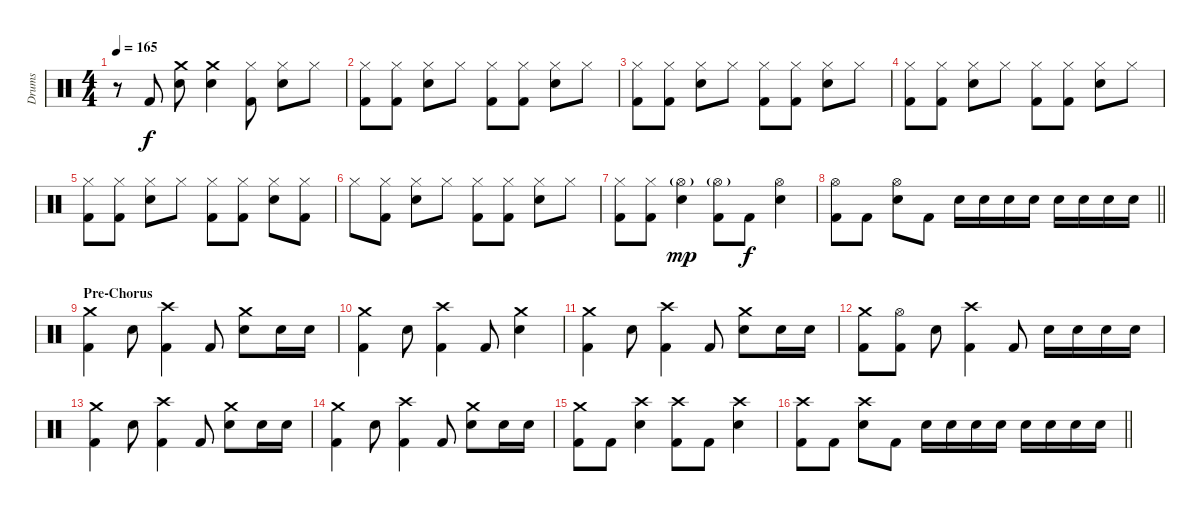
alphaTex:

\track ("Drums" "Drums") {instrument percussion}
\staff {score}
\articulation defaults
\ts (4 4)
\tempo 165
\clef neutral
\ks c
r.8{dy f} "Kick (hit) 2".8 ("Crash medium (hit)" "Electric Snare (hit)").8 ("Crash medium (hit)" "Electric Snare (hit)").4 ("Hi-Hat (closed)" "Kick (hit) 2").8 ("Hi-Hat (closed)" "Electric Snare (hit)").8 "Hi-Hat (closed)".8 |
("Hi-Hat (closed)" "Kick (hit) 2").8 ("Hi-Hat (closed)" "Kick (hit) 2").8 ("Hi-Hat (closed)" "Electric Snare (hit)").8 "Hi-Hat (closed)".8 ("Hi-Hat (closed)" "Kick (hit) 2").8 ("Hi-Hat (closed)" "Kick (hit) 2").8 ("Hi-Hat (closed)" "Electric Snare (hit)").8 "Hi-Hat (closed)".8 |
("Hi-Hat (closed)" "Kick (hit) 2").8 ("Hi-Hat (closed)" "Kick (hit) 2").8 ("Hi-Hat (closed)" "Electric Snare (hit)").8 "Hi-Hat (closed)".8 ("Hi-Hat (closed)" "Kick (hit) 2").8 ("Hi-Hat (closed)" "Kick (hit) 2").8 ("Hi-Hat (closed)" "Electric Snare (hit)").8 "Hi-Hat (closed)".8 |
("Hi-Hat (closed)" "Kick (hit) 2").8 ("Hi-Hat (closed)" "Kick (hit) 2").8 ("Hi-Hat (closed)" "Electric Snare (hit)").8 "Hi-Hat (closed)".8 ("Hi-Hat (closed)" "Kick (hit) 2").8 ("Hi-Hat (closed)" "Kick (hit) 2").8 ("Hi-Hat (closed)" "Electric Snare (hit)").8 "Hi-Hat (closed)".8 |
("Hi-Hat (closed)" "Kick (hit) 2").8 ("Hi-Hat (closed)" "Kick (hit) 2").8 ("Hi-Hat (closed)" "Electric Snare (hit)").8 "Hi-Hat (closed)".8 ("Hi-Hat (closed)" "Kick (hit) 2").8 ("Hi-Hat (closed)" "Kick (hit) 2").8 ("Hi-Hat (closed)" "Electric Snare (hit)").8 ("Hi-Hat (closed)" "Kick (hit) 2").8 |
"Hi-Hat (closed)".8 ("Hi-Hat (closed)" "Kick (hit) 2").8 ("Hi-Hat (closed)" "Electric Snare (hit)").8 "Hi-Hat (closed)".8 ("Hi-Hat (closed)" "Kick (hit) 2").8 ("Hi-Hat (closed)" "Kick (hit) 2").8 ("Hi-Hat (closed)" "Electric Snare (hit)").8 "Hi-Hat (closed)".8 |
("Hi-Hat (closed)" "Kick (hit) 2").8 ("Hi-Hat (closed)" "Kick (hit) 2").8 ("Hi-Hat (open)"{g} "Electric Snare (hit)").4{dy mp} ("Hi-Hat (open)"{g} "Kick (hit) 2").8 "Kick (hit) 2".8{dy f} ("Hi-Hat (open)" "Electric Snare (hit)").4 |
\barLineRight lightlight
("Hi-Hat (open)" "Kick (hit) 2").8 "Kick (hit) 2".8 ("Hi-Hat (open)" "Electric Snare (hit)").8 "Kick (hit) 2".8 "Electric Snare (hit)".16 "Electric Snare (hit)".16 "Electric Snare (hit)".16 "Electric Snare (hit)".16 "Electric Snare (hit)".16 "Electric Snare (hit)".16 "Electric Snare (hit)".16 "Electric Snare (hit)".16 |
\section ("" "Pre-Chorus")
("Crash medium (hit)" "Kick (hit) 2").4 "Electric Snare (hit)".8 ("Crash high (hit)" "Kick (hit) 2").4 "Kick (hit) 2".8 ("Crash medium (hit)" "Electric Snare (hit)").8 "Electric Snare (hit)".16 "Electric Snare (hit)".16 |
("Crash medium (hit)" "Kick (hit) 2").4 "Electric Snare (hit)".8 ("Crash high (hit)" "Kick (hit) 2").4 "Kick (hit) 2".8 ("Crash medium (hit)" "Electric Snare (hit)").4 |
("Crash medium (hit)" "Kick (hit) 2").4 "Electric Snare (hit)".8 ("Crash high (hit)" "Kick (hit) 2").4 "Kick (hit) 2".8 ("Crash medium (hit)" "Electric Snare (hit)").8 "Electric Snare (hit)".16 "Electric Snare (hit)".16 |
("Crash medium (hit)" "Kick (hit) 2").8 ("Hi-Hat (open)" "Kick (hit) 2").8 "Electric Snare (hit)".8 ("Crash high (hit)" "Kick (hit) 2").4 "Kick (hit) 2".8 "Electric Snare (hit)".16 "Electric Snare (hit)".16 "Electric Snare (hit)".16 "Electric Snare (hit)".16 |
("Crash medium (hit)" "Kick (hit) 2").4 "Electric Snare (hit)".8 ("Crash high (hit)" "Kick (hit) 2").4 "Kick (hit) 2".8 ("Crash medium (hit)" "Electric Snare (hit)").8 "Electric Snare (hit)".16 "Electric Snare (hit)".16 |
("Crash medium (hit)" "Kick (hit) 2").4 "Electric Snare (hit)".8 ("Crash high (hit)" "Kick (hit) 2").4 "Kick (hit) 2".8 ("Crash medium (hit)" "Electric Snare (hit)").8 "Electric Snare (hit)".16 "Electric Snare (hit)".16 |
("Crash medium (hit)" "Kick (hit) 2").8 "Kick (hit) 2".8 ("Crash high (hit)" "Electric Snare (hit)").4 ("Crash high (hit)" "Kick (hit) 2").8 "Kick (hit) 2".8 ("Crash high (hit)" "Electric Snare (hit)").4 |
\barLineRight lightlight
("Crash high (hit)" "Kick (hit) 2").8 "Kick (hit) 2".8 ("Crash high (hit)" "Electric Snare (hit)").8 "Kick (hit) 2".8 "Electric Snare (hit)".16 "Electric Snare (hit)".16 "Electric Snare (hit)".16 "Electric Snare (hit)".16 "Electric Snare (hit)".16 "Electric Snare (hit)".16 "Electric Snare (hit)".16 "Electric Snare (hit)".16
